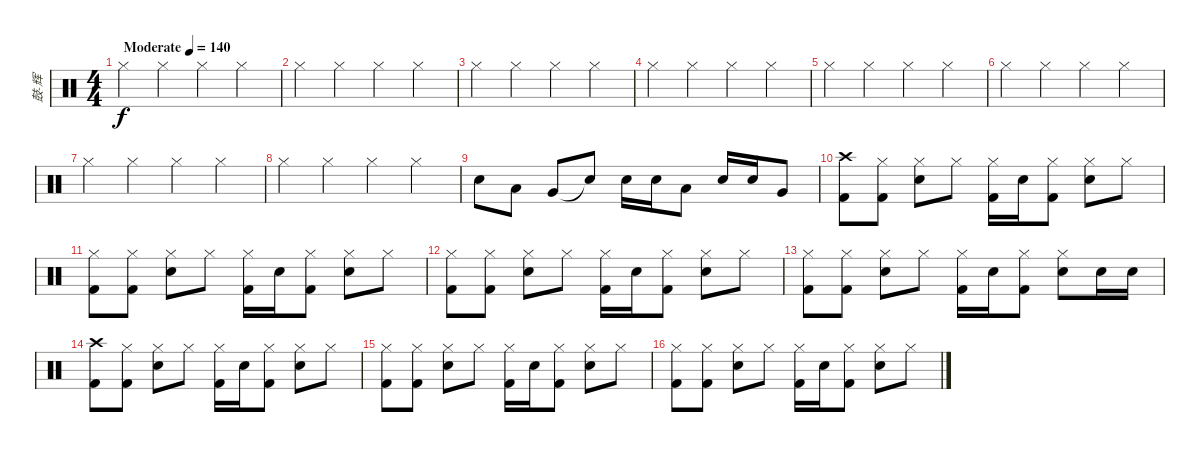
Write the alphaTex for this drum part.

\track ("鼓-辉" "鼓-辉") {instrument percussion}
\staff {score}
\articulation defaults
\ts (4 4)
\tempo (140 "Moderate")
\clef neutral
\ks c "Hi-Hat (closed)".4{dy f} "Hi-Hat (closed)".4 "Hi-Hat (closed)".4 "Hi-Hat (closed)".4
|
"Hi-Hat (closed)".4 "Hi-Hat (closed)".4 "Hi-Hat (closed)".4 "Hi-Hat (closed)".4 |
"Hi-Hat (closed)".4 "Hi-Hat (closed)".4 "Hi-Hat (closed)".4 "Hi-Hat (closed)".4 |
"Hi-Hat (closed)".4 "Hi-Hat (closed)".4 "Hi-Hat (closed)".4 "Hi-Hat (closed)".4 |
"Hi-Hat (closed)".4 "Hi-Hat (closed)".4 "Hi-Hat (closed)".4 "Hi-Hat (closed)".4 |
"Hi-Hat (closed)".4 "Hi-Hat (closed)".4 "Hi-Hat (closed)".4 "Hi-Hat (closed)".4 |
"Hi-Hat (closed)".4 "Hi-Hat (closed)".4 "Hi-Hat (closed)".4 "Hi-Hat (closed)".4 |
"Hi-Hat (closed)".4 "Hi-Hat (closed)".4 "Hi-Hat (closed)".4 "Hi-Hat (closed)".4 |
"Snare (hit) 2".8 "Low Tom (hit)".8 "Very Low Tom (hit)".8 "Snare (hit)"{t}.8 "Snare (hit) 2".16 "Snare (hit) 2".16 "Low Tom (hit)".8 "Snare (hit) 2".16 "Snare (hit) 2".16 "Very Low Tom (hit)".8 |
("Crash high (hit)" "Kick (hit) 2").8 ("Hi-Hat (closed)" "Kick (hit) 2").8 ("Hi-Hat (closed)" "Snare (hit) 2").8 "Hi-Hat (closed)".8 ("Hi-Hat (closed)" "Kick (hit) 2").16 "Snare (hit) 2".16 ("Hi-Hat (closed)" "Kick (hit) 2").8 ("Hi-Hat (closed)" "Snare (hit) 2").8 "Hi-Hat (closed)".8 |
("Hi-Hat (closed)" "Kick (hit) 2").8 ("Hi-Hat (closed)" "Kick (hit) 2").8 ("Hi-Hat (closed)" "Snare (hit) 2").8 "Hi-Hat (closed)".8 ("Hi-Hat (closed)" "Kick (hit) 2").16 "Snare (hit) 2".16 ("Hi-Hat (closed)" "Kick (hit) 2").8 ("Hi-Hat (closed)" "Snare (hit) 2").8 "Hi-Hat (closed)".8 |
("Hi-Hat (closed)" "Kick (hit) 2").8 ("Hi-Hat (closed)" "Kick (hit) 2").8 ("Hi-Hat (closed)" "Snare (hit) 2").8 "Hi-Hat (closed)".8 ("Hi-Hat (closed)" "Kick (hit) 2").16 "Snare (hit) 2".16 ("Hi-Hat (closed)" "Kick (hit) 2").8 ("Hi-Hat (closed)" "Snare (hit) 2").8 "Hi-Hat (closed)".8 |
("Hi-Hat (closed)" "Kick (hit) 2").8 ("Hi-Hat (closed)" "Kick (hit) 2").8 ("Hi-Hat (closed)" "Snare (hit) 2").8 "Hi-Hat (closed)".8 ("Hi-Hat (closed)" "Kick (hit) 2").16 "Snare (hit) 2".16 ("Hi-Hat (closed)" "Kick (hit) 2").8 ("Hi-Hat (closed)" "Snare (hit) 2").8 "Snare (hit) 2".16 "Snare (hit) 2".16 |
("Crash high (hit)" "Kick (hit) 2").8 ("Hi-Hat (closed)" "Kick (hit) 2").8 ("Hi-Hat (closed)" "Snare (hit) 2").8 "Hi-Hat (closed)".8 ("Hi-Hat (closed)" "Kick (hit) 2").16 "Snare (hit) 2".16 ("Hi-Hat (closed)" "Kick (hit) 2").8 ("Hi-Hat (closed)" "Snare (hit) 2").8 "Hi-Hat (closed)".8 |
("Hi-Hat (closed)" "Kick (hit) 2").8 ("Hi-Hat (closed)" "Kick (hit) 2").8 ("Hi-Hat (closed)" "Snare (hit) 2").8 "Hi-Hat (closed)".8 ("Hi-Hat (closed)" "Kick (hit) 2").16 "Snare (hit) 2".16 ("Hi-Hat (closed)" "Kick (hit) 2").8 ("Hi-Hat (closed)" "Snare (hit) 2").8 "Hi-Hat (closed)".8 |
("Hi-Hat (closed)" "Kick (hit) 2").8 ("Hi-Hat (closed)" "Kick (hit) 2").8 ("Hi-Hat (closed)" "Snare (hit) 2").8 "Hi-Hat (closed)".8 ("Hi-Hat (closed)" "Kick (hit) 2").16 "Snare (hit) 2".16 ("Hi-Hat (closed)" "Kick (hit) 2").8 ("Hi-Hat (closed)" "Snare (hit) 2").8 "Hi-Hat (closed)".8
